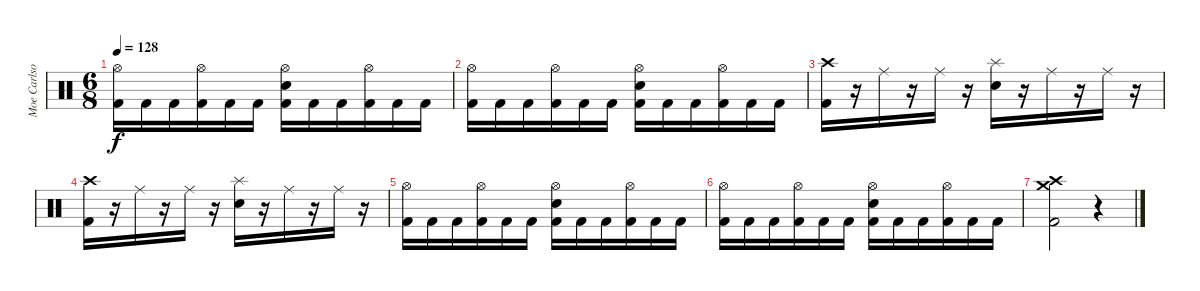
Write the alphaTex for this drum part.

\track ("Moe Carlson" "Moe Carlso") {instrument percussion}
\staff {score}
\articulation defaults
\ts (6 8)
\tempo 128
\clef neutral
\ks c
("Hi-Hat (open)" "Kick (hit) 2").16{dy f} "Kick (hit) 2".16 "Kick (hit) 2".16 ("Hi-Hat (open)" "Kick (hit) 2").16 "Kick (hit) 2".16 "Kick (hit) 2".16 ("Hi-Hat (open)" "Electric Snare (hit)" "Kick (hit) 2").16 "Kick (hit) 2".16 "Kick (hit) 2".16 ("Hi-Hat (open)" "Kick (hit) 2").16 "Kick (hit) 2".16 "Kick (hit) 2".16 |
("Hi-Hat (open)" "Kick (hit) 2").16 "Kick (hit) 2".16 "Kick (hit) 2".16 ("Hi-Hat (open)" "Kick (hit) 2").16 "Kick (hit) 2".16 "Kick (hit) 2".16 ("Hi-Hat (open)" "Electric Snare (hit)" "Kick (hit) 2").16 "Kick (hit) 2".16 "Kick (hit) 2".16 ("Hi-Hat (open)" "Kick (hit) 2").16 "Kick (hit) 2".16 "Kick (hit) 2".16 |
("Crash high (hit)" "Kick (hit) 2").16 r.16 "Ride (middle)".16 r.16 "Ride (middle)".16 r.16 ("Splash (hit)" "Electric Snare (hit)").16 r.16 "Ride (middle)".16 r.16 "Ride (middle)".16 r.16 |
("Crash high (hit)" "Kick (hit) 2").16 r.16 "Ride (middle)".16 r.16 "Ride (middle)".16 r.16 ("Splash (hit)" "Electric Snare (hit)").16 r.16 "Ride (middle)".16 r.16 "Ride (middle)".16 r.16 |
("Hi-Hat (open)" "Kick (hit) 2").16 "Kick (hit) 2".16 "Kick (hit) 2".16 ("Hi-Hat (open)" "Kick (hit) 2").16 "Kick (hit) 2".16 "Kick (hit) 2".16 ("Hi-Hat (open)" "Electric Snare (hit)" "Kick (hit) 2").16 "Kick (hit) 2".16 "Kick (hit) 2".16 ("Hi-Hat (open)" "Kick (hit) 2").16 "Kick (hit) 2".16 "Kick (hit) 2".16 |
("Hi-Hat (open)" "Kick (hit) 2").16 "Kick (hit) 2".16 "Kick (hit) 2".16 ("Hi-Hat (open)" "Kick (hit) 2").16 "Kick (hit) 2".16 "Kick (hit) 2".16 ("Hi-Hat (open)" "Electric Snare (hit)" "Kick (hit) 2").16 "Kick (hit) 2".16 "Kick (hit) 2".16 ("Hi-Hat (open)" "Kick (hit) 2").16 "Kick (hit) 2".16 "Kick (hit) 2".16 |
("Crash high (hit)" "Crash medium (hit)" "Kick (hit) 2").2 r.4
